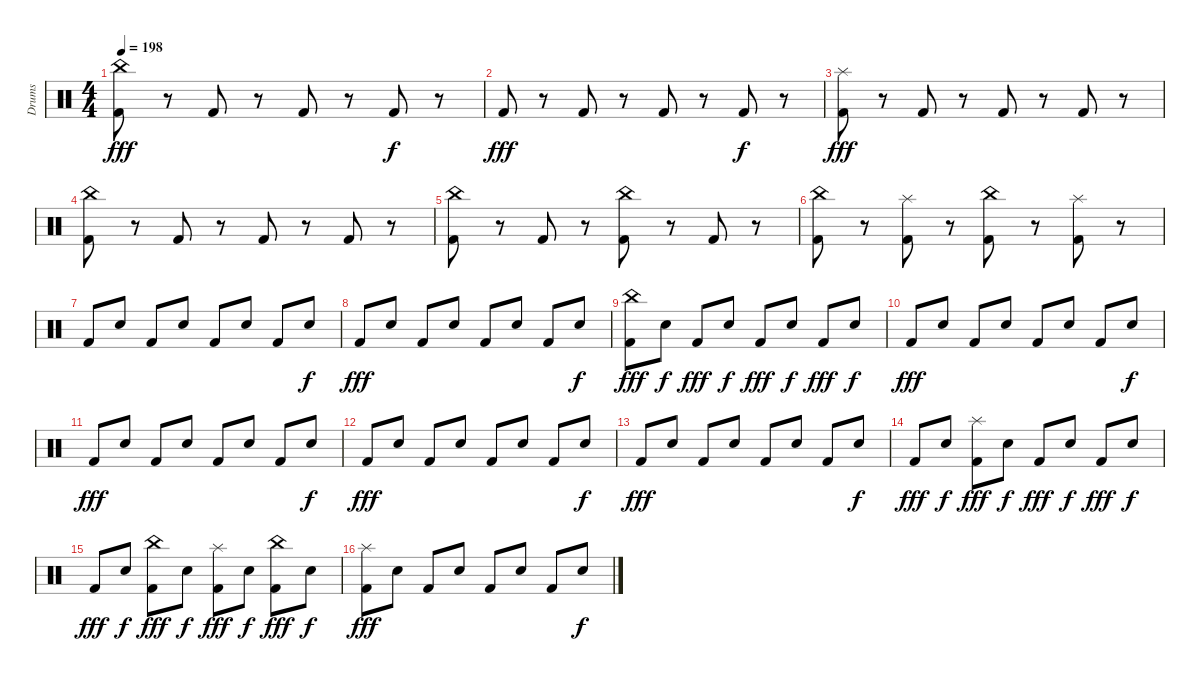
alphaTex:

\track ("Drums" "Drums") {instrument percussion}
\staff {score}
\articulation defaults
\ts (4 4)
\tempo 198
\clef neutral
\ks c
("China (hit)" "Kick (hit) 2").8{dy fff} r.8 "Kick (hit) 2".8 r.8 "Kick (hit) 2".8 r.8 "Kick (hit) 2".8{dy f} r.8 |
"Kick (hit) 2".8{dy fff} r.8 "Kick (hit) 2".8 r.8 "Kick (hit) 2".8 r.8 "Kick (hit) 2".8{dy f} r.8 |
("Splash (hit)" "Kick (hit) 2").8{dy fff} r.8 "Kick (hit) 2".8 r.8 "Kick (hit) 2".8 r.8 "Kick (hit) 2".8 r.8 |
("China (hit)" "Kick (hit) 2").8 r.8 "Kick (hit) 2".8 r.8 "Kick (hit) 2".8 r.8 "Kick (hit) 2".8 r.8 |
("China (hit)" "Kick (hit) 2").8 r.8 "Kick (hit) 2".8 r.8 ("China (hit)" "Kick (hit) 2").8 r.8 "Kick (hit) 2".8 r.8 |
("China (hit)" "Kick (hit) 2").8 r.8 ("Splash (hit)" "Kick (hit) 2").8 r.8 ("China (hit)" "Kick (hit) 2").8 r.8 ("Splash (hit)" "Kick (hit) 2").8 r.8 |
"Kick (hit) 2".8 "Snare (hit) 2".8 "Kick (hit) 2".8 "Snare (hit) 2".8 "Kick (hit) 2".8 "Snare (hit) 2".8 "Kick (hit) 2".8 "Snare (hit) 2".8{dy f} |
"Kick (hit) 2".8{dy fff} "Snare (hit) 2".8 "Kick (hit) 2".8 "Snare (hit) 2".8 "Kick (hit) 2".8 "Snare (hit) 2".8 "Kick (hit) 2".8 "Snare (hit) 2".8{dy f} |
("China (hit)" "Kick (hit) 2").8{dy fff} "Snare (hit) 2".8{dy f} "Kick (hit) 2".8{dy fff} "Snare (hit) 2".8{dy f} "Kick (hit) 2".8{dy fff} "Snare (hit) 2".8{dy f} "Kick (hit) 2".8{dy fff} "Snare (hit) 2".8{dy f} |
"Kick (hit) 2".8{dy fff} "Snare (hit) 2".8 "Kick (hit) 2".8 "Snare (hit) 2".8 "Kick (hit) 2".8 "Snare (hit) 2".8 "Kick (hit) 2".8 "Snare (hit) 2".8{dy f} |
"Kick (hit) 2".8{dy fff} "Snare (hit) 2".8 "Kick (hit) 2".8 "Snare (hit) 2".8 "Kick (hit) 2".8 "Snare (hit) 2".8 "Kick (hit) 2".8 "Snare (hit) 2".8{dy f} |
"Kick (hit) 2".8{dy fff} "Snare (hit) 2".8 "Kick (hit) 2".8 "Snare (hit) 2".8 "Kick (hit) 2".8 "Snare (hit) 2".8 "Kick (hit) 2".8 "Snare (hit) 2".8{dy f} |
"Kick (hit) 2".8{dy fff} "Snare (hit) 2".8 "Kick (hit) 2".8 "Snare (hit) 2".8 "Kick (hit) 2".8 "Snare (hit) 2".8 "Kick (hit) 2".8 "Snare (hit) 2".8{dy f} |
"Kick (hit) 2".8{dy fff} "Snare (hit) 2".8{dy f} ("Splash (hit)" "Kick (hit) 2").8{dy fff} "Snare (hit) 2".8{dy f} "Kick (hit) 2".8{dy fff} "Snare (hit) 2".8{dy f} "Kick (hit) 2".8{dy fff} "Snare (hit) 2".8{dy f} |
"Kick (hit) 2".8{dy fff} "Snare (hit) 2".8{dy f} ("China (hit)" "Kick (hit) 2").8{dy fff} "Snare (hit) 2".8{dy f} ("Splash (hit)" "Kick (hit) 2").8{dy fff} "Snare (hit) 2".8{dy f} ("China (hit)" "Kick (hit) 2").8{dy fff} "Snare (hit) 2".8{dy f} |
("Splash (hit)" "Kick (hit) 2").8{dy fff} "Snare (hit) 2".8 "Kick (hit) 2".8 "Snare (hit) 2".8 "Kick (hit) 2".8 "Snare (hit) 2".8 "Kick (hit) 2".8 "Snare (hit) 2".8{dy f}
